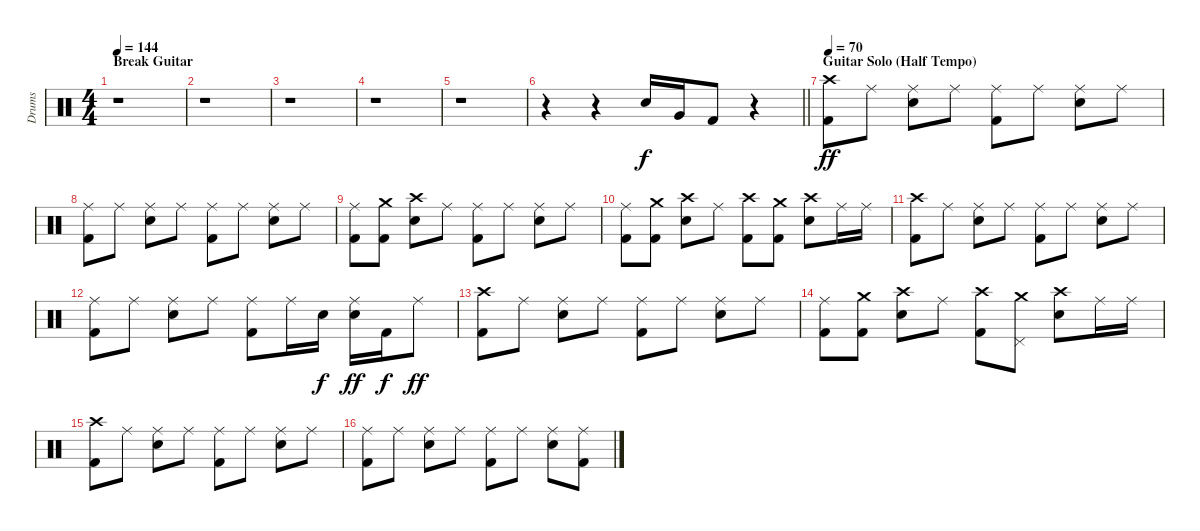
\track ("Drums" "Drums") {instrument percussion}
\staff {score}
\articulation defaults
\ts (4 4)
\section ("" "Break Guitar")
\tempo 144
\clef neutral
\ks c
r.1{dy ff} |
r.1 |
r.1 |
r.1 |
r.1 |
\barLineRight lightlight
r.4 r.4 "Snare (hit) 2".16{dy f} "Very Low Tom (hit)".16 "Kick (hit) 2".8 r.4 |
\section ("" "Guitar Solo (Half Tempo)")
\tempo 70
("Crash high (hit)" "Kick (hit) 2").8{dy ff volume 12} "Ride (middle)".8 ("Ride (middle)" "Snare (hit) 2").8 "Ride (middle)".8 ("Ride (middle)" "Kick (hit) 2").8 "Ride (middle)".8 ("Ride (middle)" "Snare (hit) 2").8 "Ride (middle)".8 |
("Ride (middle)" "Kick (hit) 2").8 "Ride (middle)".8 ("Ride (middle)" "Snare (hit) 2").8 "Ride (middle)".8 ("Ride (middle)" "Kick (hit) 2").8 "Ride (middle)".8 ("Ride (middle)" "Snare (hit) 2").8 "Ride (middle)".8 |
("Ride (middle)" "Kick (hit) 2").8 ("Crash medium (hit)" "Kick (hit) 2").8 ("Crash high (hit)" "Snare (hit) 2").8 "Ride (middle)".8 ("Ride (middle)" "Kick (hit) 2").8 "Ride (middle)".8 ("Ride (middle)" "Snare (hit) 2").8 "Ride (middle)".8 |
("Ride (middle)" "Kick (hit) 2").8 ("Crash medium (hit)" "Kick (hit) 2").8 ("Crash high (hit)" "Snare (hit) 2").8 "Ride (middle)".8 ("Crash high (hit)" "Kick (hit) 2").8 ("Crash medium (hit)" "Kick (hit) 2").8 ("Crash high (hit)" "Snare (hit) 2").8 "Ride (middle)".16 "Ride (middle)".16 |
("Crash high (hit)" "Kick (hit) 2").8 "Ride (middle)".8 ("Ride (middle)" "Snare (hit) 2").8 "Ride (middle)".8 ("Ride (middle)" "Kick (hit) 2").8 "Ride (middle)".8 ("Ride (middle)" "Snare (hit) 2").8 "Ride (middle)".8 |
("Ride (middle)" "Kick (hit) 2").8 "Ride (middle)".8 ("Ride (middle)" "Snare (hit) 2").8 "Ride (middle)".8 ("Ride (middle)" "Kick (hit) 2").8 "Ride (middle)".16 "Snare (hit) 2".16{dy f} ("Ride (middle)" "Snare (hit) 2").16{dy ff} "Kick (hit) 2".16{dy f} "Ride (middle)".8{dy ff} |
("Crash high (hit)" "Kick (hit) 2").8 "Ride (middle)".8 ("Ride (middle)" "Snare (hit) 2").8 "Ride (middle)".8 ("Ride (middle)" "Kick (hit) 2").8 "Ride (middle)".8 ("Ride (middle)" "Snare (hit) 2").8 "Ride (middle)".8 |
("Ride (middle)" "Kick (hit) 2").8 ("Crash medium (hit)" "Kick (hit) 2").8 ("Crash high (hit)" "Snare (hit) 2").8 "Ride (middle)".8 ("Crash high (hit)" "Kick (hit) 2").8 ("Crash medium (hit)" "Pedal Hi-Hat (hit)").8 ("Crash high (hit)" "Snare (hit) 2").8 "Ride (middle)".16 "Ride (middle)".16 |
("Crash high (hit)" "Kick (hit) 2").8 "Ride (middle)".8 ("Ride (middle)" "Snare (hit) 2").8 "Ride (middle)".8 ("Ride (middle)" "Kick (hit) 2").8 "Ride (middle)".8 ("Ride (middle)" "Snare (hit) 2").8 "Ride (middle)".8 |
("Ride (middle)" "Kick (hit) 2").8 "Ride (middle)".8 ("Ride (middle)" "Snare (hit) 2").8 "Ride (middle)".8 ("Ride (middle)" "Kick (hit) 2").8 "Ride (middle)".8 ("Ride (middle)" "Snare (hit) 2").8 ("Ride (middle)" "Kick (hit) 2").8
